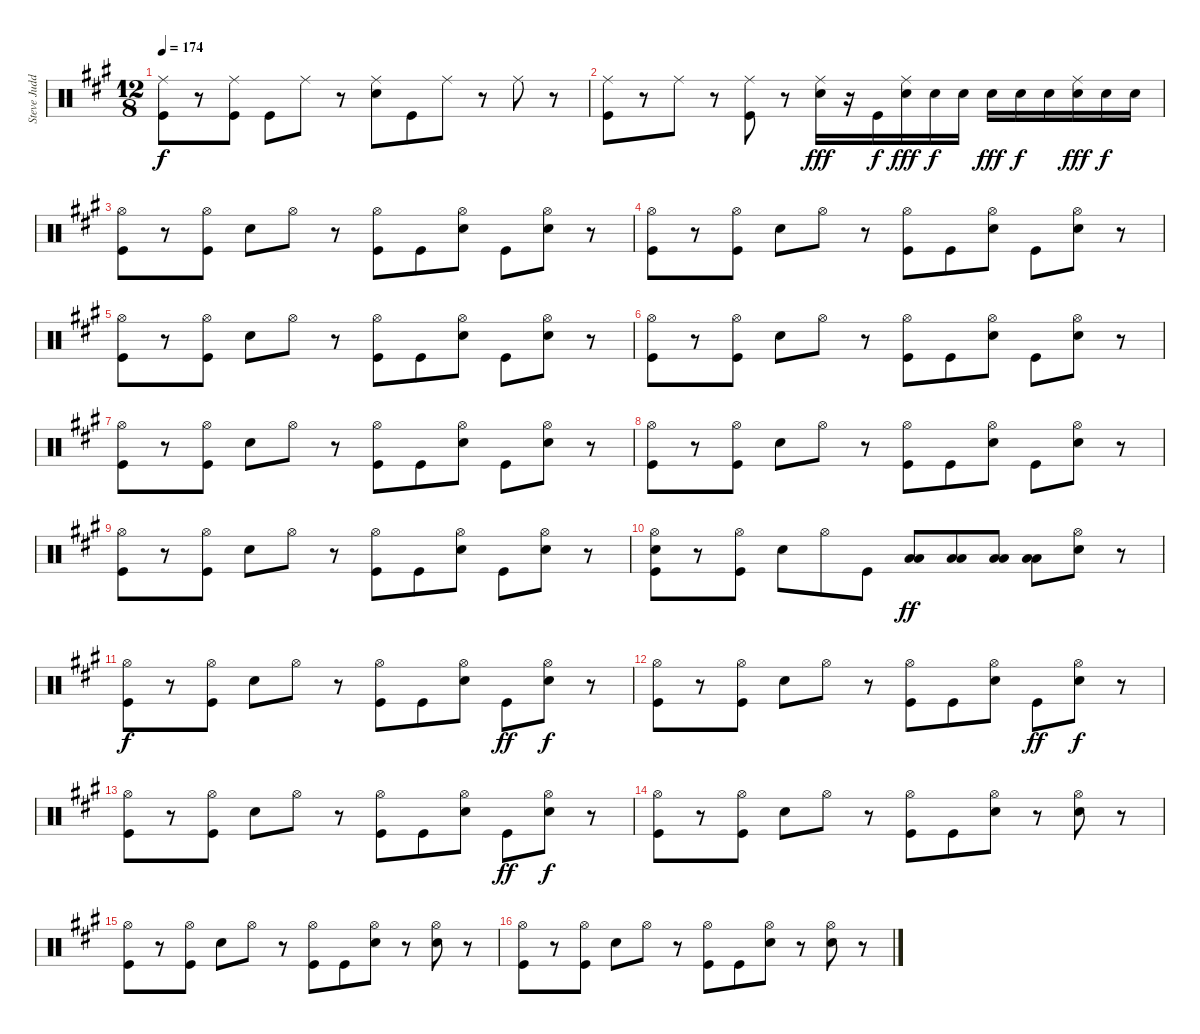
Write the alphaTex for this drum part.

\track ("Steve Judd (Drums)" "Steve Judd") {instrument percussion}
\staff {score}
\articulation defaults
\ts (12 8)
\tempo 174
\clef neutral
\ks a
("Ride (middle)" "Kick (hit)").8{dy f} r.8 ("Ride (middle)" "Kick (hit)").8 "Kick (hit)".8 "Ride (middle)".8 r.8 ("Snare (hit) 2" "Ride (middle)").8 "Kick (hit)".8 "Ride (middle)".8 r.8 "Ride (middle)".8 r.8 |
("Ride (middle)" "Kick (hit)").8 r.8 "Ride (middle)".8 r.8 ("Ride (middle)" "Kick (hit)").8 r.8 ("Snare (hit) 2" "Ride (middle)").16{dy fff} r.16 "Kick (hit)".16{dy f} ("Snare (hit) 2" "Ride (middle)").16{dy fff} "Snare (hit) 2".16{dy f} "Snare (hit) 2".16 "Snare (hit) 2".16{dy fff} "Snare (hit) 2".16{dy f} "Snare (hit) 2".16 ("Snare (hit) 2" "Ride (middle)").16{dy fff} "Snare (hit) 2".16{dy f} "Snare (hit) 2".16 |
("Hi-Hat (open)" "Kick (hit)").8 r.8 ("Hi-Hat (open)" "Kick (hit)").8 "Snare (hit) 2".8 "Hi-Hat (open)".8 r.8 ("Hi-Hat (open)" "Kick (hit)").8 "Kick (hit)".8 ("Hi-Hat (open)" "Snare (hit) 2").8 "Kick (hit)".8 ("Hi-Hat (open)" "Snare (hit) 2").8 r.8 |
("Hi-Hat (open)" "Kick (hit)").8 r.8 ("Hi-Hat (open)" "Kick (hit)").8 "Snare (hit) 2".8 "Hi-Hat (open)".8 r.8 ("Hi-Hat (open)" "Kick (hit)").8 "Kick (hit)".8 ("Hi-Hat (open)" "Snare (hit) 2").8 "Kick (hit)".8 ("Hi-Hat (open)" "Snare (hit) 2").8 r.8 |
("Hi-Hat (open)" "Kick (hit)").8 r.8 ("Hi-Hat (open)" "Kick (hit)").8 "Snare (hit) 2".8 "Hi-Hat (open)".8 r.8 ("Hi-Hat (open)" "Kick (hit)").8 "Kick (hit)".8 ("Hi-Hat (open)" "Snare (hit) 2").8 "Kick (hit)".8 ("Hi-Hat (open)" "Snare (hit) 2").8 r.8 |
("Hi-Hat (open)" "Kick (hit)").8 r.8 ("Hi-Hat (open)" "Kick (hit)").8 "Snare (hit) 2".8 "Hi-Hat (open)".8 r.8 ("Hi-Hat (open)" "Kick (hit)").8 "Kick (hit)".8 ("Hi-Hat (open)" "Snare (hit) 2").8 "Kick (hit)".8 ("Hi-Hat (open)" "Snare (hit) 2").8 r.8 |
("Hi-Hat (open)" "Kick (hit)").8 r.8 ("Hi-Hat (open)" "Kick (hit)").8 "Snare (hit) 2".8 "Hi-Hat (open)".8 r.8 ("Hi-Hat (open)" "Kick (hit)").8 "Kick (hit)".8 ("Hi-Hat (open)" "Snare (hit) 2").8 "Kick (hit)".8 ("Hi-Hat (open)" "Snare (hit) 2").8 r.8 |
("Hi-Hat (open)" "Kick (hit)").8 r.8 ("Hi-Hat (open)" "Kick (hit)").8 "Snare (hit) 2".8 "Hi-Hat (open)".8 r.8 ("Hi-Hat (open)" "Kick (hit)").8 "Kick (hit)".8 ("Hi-Hat (open)" "Snare (hit) 2").8 "Kick (hit)".8 ("Hi-Hat (open)" "Snare (hit) 2").8 r.8 |
("Hi-Hat (open)" "Kick (hit)").8 r.8 ("Hi-Hat (open)" "Kick (hit)").8 "Snare (hit) 2".8 "Hi-Hat (open)".8 r.8 ("Hi-Hat (open)" "Kick (hit)").8 "Kick (hit)".8 ("Hi-Hat (open)" "Snare (hit) 2").8 "Kick (hit)".8 ("Hi-Hat (open)" "Snare (hit) 2").8 r.8 |
("Hi-Hat (open)" "Snare (hit) 2" "Kick (hit)").8 r.8 ("Hi-Hat (open)" "Kick (hit)").8 "Snare (hit) 2".8 "Hi-Hat (open)".8 "Kick (hit)".8 ("Low Tom (hit)" "Low Floor Tom (hit)").8{dy ff} ("Low Tom (hit)" "Low Floor Tom (hit)").8 ("Low Tom (hit)" "Low Floor Tom (hit)").8 ("Low Tom (hit)" "Low Floor Tom (hit)").8 ("Hi-Hat (open)" "Snare (hit) 2").8 r.8 |
("Hi-Hat (open)" "Kick (hit)").8{dy f} r.8 ("Hi-Hat (open)" "Kick (hit)").8 "Snare (hit) 2".8 "Hi-Hat (open)".8 r.8 ("Hi-Hat (open)" "Kick (hit)").8 "Kick (hit)".8 ("Hi-Hat (open)" "Snare (hit) 2").8 "Kick (hit)".8{dy ff} ("Hi-Hat (open)" "Snare (hit) 2").8{dy f} r.8 |
("Hi-Hat (open)" "Kick (hit)").8 r.8 ("Hi-Hat (open)" "Kick (hit)").8 "Snare (hit) 2".8 "Hi-Hat (open)".8 r.8 ("Hi-Hat (open)" "Kick (hit)").8 "Kick (hit)".8 ("Hi-Hat (open)" "Snare (hit) 2").8 "Kick (hit)".8{dy ff} ("Hi-Hat (open)" "Snare (hit) 2").8{dy f} r.8 |
("Hi-Hat (open)" "Kick (hit)").8 r.8 ("Hi-Hat (open)" "Kick (hit)").8 "Snare (hit) 2".8 "Hi-Hat (open)".8 r.8 ("Hi-Hat (open)" "Kick (hit)").8 "Kick (hit)".8 ("Hi-Hat (open)" "Snare (hit) 2").8 "Kick (hit)".8{dy ff} ("Hi-Hat (open)" "Snare (hit) 2").8{dy f} r.8 |
("Hi-Hat (open)" "Kick (hit)").8 r.8 ("Hi-Hat (open)" "Kick (hit)").8 "Snare (hit) 2".8 "Hi-Hat (open)".8 r.8 ("Hi-Hat (open)" "Kick (hit)").8 "Kick (hit)".8 ("Hi-Hat (open)" "Snare (hit) 2").8 r.8 ("Hi-Hat (open)" "Snare (hit) 2").8 r.8 |
("Hi-Hat (open)" "Kick (hit)").8 r.8 ("Hi-Hat (open)" "Kick (hit)").8 "Snare (hit) 2".8 "Hi-Hat (open)".8 r.8 ("Hi-Hat (open)" "Kick (hit)").8 "Kick (hit)".8 ("Hi-Hat (open)" "Snare (hit) 2").8 r.8 ("Hi-Hat (open)" "Snare (hit) 2").8 r.8 |
("Hi-Hat (open)" "Kick (hit)").8 r.8 ("Hi-Hat (open)" "Kick (hit)").8 "Snare (hit) 2".8 "Hi-Hat (open)".8 r.8 ("Hi-Hat (open)" "Kick (hit)").8 "Kick (hit)".8 ("Hi-Hat (open)" "Snare (hit) 2").8 r.8 ("Hi-Hat (open)" "Snare (hit) 2").8 r.8
